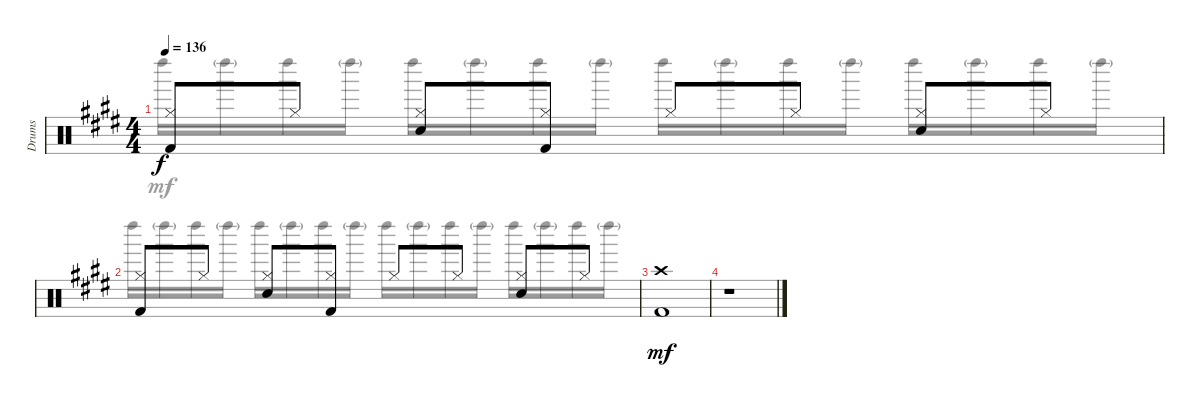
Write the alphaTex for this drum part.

\track ("Drums" "Drums") {instrument percussion}
\staff {score}
\articulation defaults
\voice
\ts (4 4)
\tempo 136
\clef neutral
\ks e
("Hi-Hat (closed)" "Kick (hit) 2").8{dy f} "Hi-Hat (closed)".8 ("Hi-Hat (closed)" "Snare (hit) 2").8 ("Hi-Hat (closed)" "Kick (hit) 2").8 "Hi-Hat (closed)".8 "Hi-Hat (closed)".8 ("Hi-Hat (closed)" "Snare (hit) 2").8 "Hi-Hat (closed)".8 |
("Hi-Hat (closed)" "Kick (hit) 2").8 "Hi-Hat (closed)".8 ("Hi-Hat (closed)" "Snare (hit) 2").8 ("Hi-Hat (closed)" "Kick (hit) 2").8 "Hi-Hat (closed)".8 "Hi-Hat (closed)".8 ("Hi-Hat (closed)" "Snare (hit) 2").8 "Hi-Hat (closed)".8 |
("Crash high (hit)" "Kick (hit) 2").1{dy mf} |
r.1
\voice
\clef neutral
\ottava regular
\simile none
\ks e "Left Maraca (hit)".16{dy mf} "Left Maraca (hit)"{g}.16 "Left Maraca (hit)".16 "Left Maraca (hit)"{g}.16 "Left Maraca (hit)".16 "Left Maraca (hit)"{g}.16 "Left Maraca (hit)".16 "Left Maraca (hit)"{g}.16 "Left Maraca (hit)".16 "Left Maraca (hit)"{g}.16 "Left Maraca (hit)".16 "Left Maraca (hit)"{g}.16 "Left Maraca (hit)".16 "Left Maraca (hit)"{g}.16 "Left Maraca (hit)".16 "Left Maraca (hit)"{g}.16
|
"Left Maraca (hit)".16 "Left Maraca (hit)"{g}.16 "Left Maraca (hit)".16 "Left Maraca (hit)"{g}.16 "Left Maraca (hit)".16 "Left Maraca (hit)"{g}.16 "Left Maraca (hit)".16 "Left Maraca (hit)"{g}.16 "Left Maraca (hit)".16 "Left Maraca (hit)"{g}.16 "Left Maraca (hit)".16 "Left Maraca (hit)"{g}.16 "Left Maraca (hit)".16 "Left Maraca (hit)"{g}.16 "Left Maraca (hit)".16 "Left Maraca (hit)"{g}.16 |
|
